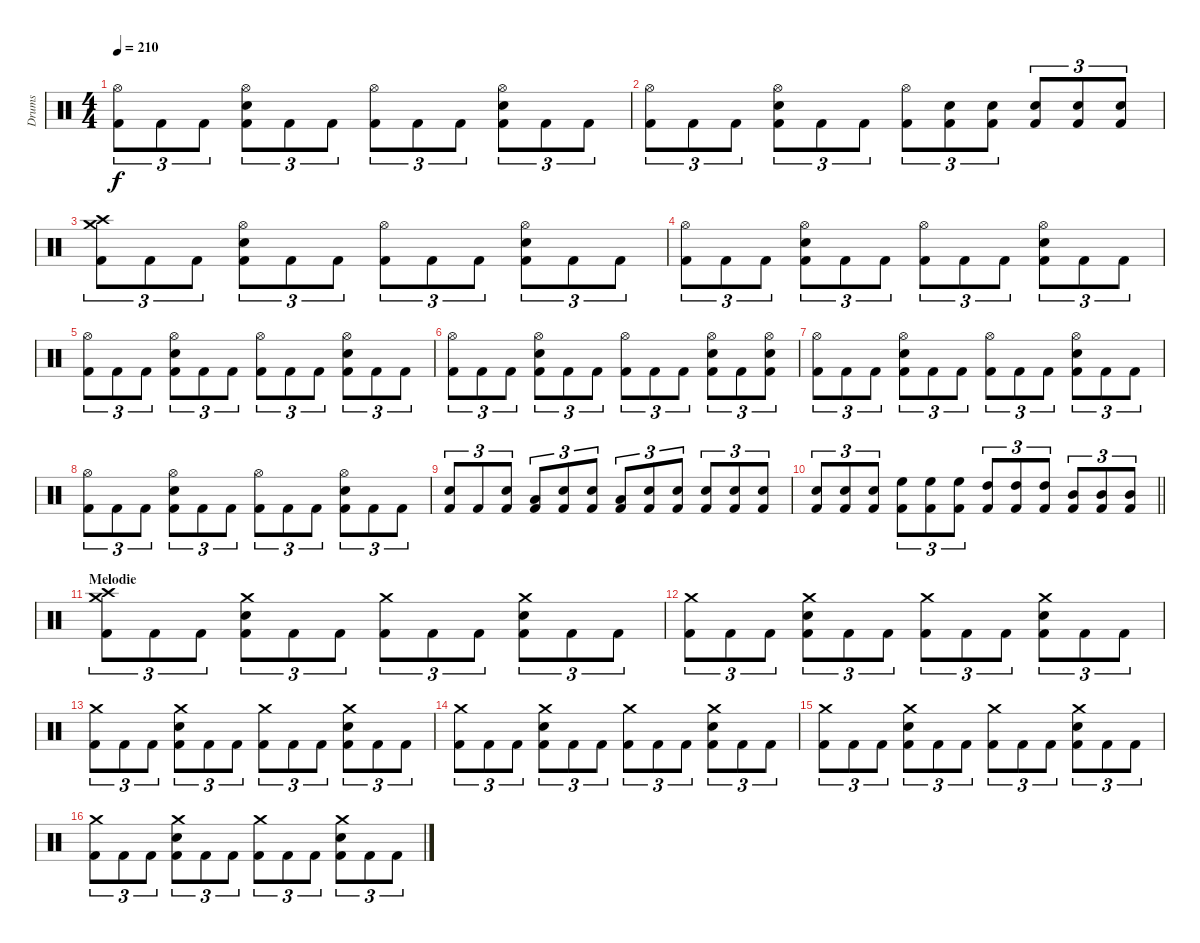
\track ("Drums" "Drums") {instrument percussion}
\staff {score}
\articulation defaults
\ts (4 4)
\tempo 210
\clef neutral
\ks c
("Hi-Hat (open)" "Kick (hit) 2").8{tu (3 2) dy f} "Kick (hit) 2".8{tu (3 2)} "Kick (hit) 2".8{tu (3 2)} ("Hi-Hat (open)" "Electric Snare (hit)" "Kick (hit) 2").8{tu (3 2)} "Kick (hit) 2".8{tu (3 2)} "Kick (hit) 2".8{tu (3 2)} ("Hi-Hat (open)" "Kick (hit) 2").8{tu (3 2)} "Kick (hit) 2".8{tu (3 2)} "Kick (hit) 2".8{tu (3 2)} ("Hi-Hat (open)" "Electric Snare (hit)" "Kick (hit) 2").8{tu (3 2)} "Kick (hit) 2".8{tu (3 2)} "Kick (hit) 2".8{tu (3 2)} |
("Hi-Hat (open)" "Kick (hit) 2").8{tu (3 2)} "Kick (hit) 2".8{tu (3 2)} "Kick (hit) 2".8{tu (3 2)} ("Hi-Hat (open)" "Electric Snare (hit)" "Kick (hit) 2").8{tu (3 2)} "Kick (hit) 2".8{tu (3 2)} "Kick (hit) 2".8{tu (3 2)} ("Hi-Hat (open)" "Kick (hit) 2").8{tu (3 2)} ("Electric Snare (hit)" "Kick (hit) 2").8{tu (3 2)} ("Electric Snare (hit)" "Kick (hit) 2").8{tu (3 2)} ("Electric Snare (hit)" "Kick (hit) 2").8{tu (3 2)} ("Electric Snare (hit)" "Kick (hit) 2").8{tu (3 2)} ("Electric Snare (hit)" "Kick (hit) 2").8{tu (3 2)} |
("Crash medium (hit)" "Crash high (hit)" "Kick (hit) 2").8{tu (3 2)} "Kick (hit) 2".8{tu (3 2)} "Kick (hit) 2".8{tu (3 2)} ("Hi-Hat (open)" "Electric Snare (hit)" "Kick (hit) 2").8{tu (3 2)} "Kick (hit) 2".8{tu (3 2)} "Kick (hit) 2".8{tu (3 2)} ("Hi-Hat (open)" "Kick (hit) 2").8{tu (3 2)} "Kick (hit) 2".8{tu (3 2)} "Kick (hit) 2".8{tu (3 2)} ("Hi-Hat (open)" "Electric Snare (hit)" "Kick (hit) 2").8{tu (3 2)} "Kick (hit) 2".8{tu (3 2)} "Kick (hit) 2".8{tu (3 2)} |
("Hi-Hat (open)" "Kick (hit) 2").8{tu (3 2)} "Kick (hit) 2".8{tu (3 2)} "Kick (hit) 2".8{tu (3 2)} ("Hi-Hat (open)" "Electric Snare (hit)" "Kick (hit) 2").8{tu (3 2)} "Kick (hit) 2".8{tu (3 2)} "Kick (hit) 2".8{tu (3 2)} ("Hi-Hat (open)" "Kick (hit) 2").8{tu (3 2)} "Kick (hit) 2".8{tu (3 2)} "Kick (hit) 2".8{tu (3 2)} ("Hi-Hat (open)" "Electric Snare (hit)" "Kick (hit) 2").8{tu (3 2)} "Kick (hit) 2".8{tu (3 2)} "Kick (hit) 2".8{tu (3 2)} |
("Hi-Hat (open)" "Kick (hit) 2").8{tu (3 2)} "Kick (hit) 2".8{tu (3 2)} "Kick (hit) 2".8{tu (3 2)} ("Hi-Hat (open)" "Electric Snare (hit)" "Kick (hit) 2").8{tu (3 2)} "Kick (hit) 2".8{tu (3 2)} "Kick (hit) 2".8{tu (3 2)} ("Hi-Hat (open)" "Kick (hit) 2").8{tu (3 2)} "Kick (hit) 2".8{tu (3 2)} "Kick (hit) 2".8{tu (3 2)} ("Hi-Hat (open)" "Electric Snare (hit)" "Kick (hit) 2").8{tu (3 2)} "Kick (hit) 2".8{tu (3 2)} "Kick (hit) 2".8{tu (3 2)} |
("Hi-Hat (open)" "Kick (hit) 2").8{tu (3 2)} "Kick (hit) 2".8{tu (3 2)} "Kick (hit) 2".8{tu (3 2)} ("Hi-Hat (open)" "Electric Snare (hit)" "Kick (hit) 2").8{tu (3 2)} "Kick (hit) 2".8{tu (3 2)} "Kick (hit) 2".8{tu (3 2)} ("Hi-Hat (open)" "Kick (hit) 2").8{tu (3 2)} "Kick (hit) 2".8{tu (3 2)} "Kick (hit) 2".8{tu (3 2)} ("Hi-Hat (open)" "Electric Snare (hit)" "Kick (hit) 2").8{tu (3 2)} "Kick (hit) 2".8{tu (3 2)} ("Hi-Hat (open)" "Electric Snare (hit)" "Kick (hit) 2").8{tu (3 2)} |
("Hi-Hat (open)" "Kick (hit) 2").8{tu (3 2)} "Kick (hit) 2".8{tu (3 2)} "Kick (hit) 2".8{tu (3 2)} ("Hi-Hat (open)" "Electric Snare (hit)" "Kick (hit) 2").8{tu (3 2)} "Kick (hit) 2".8{tu (3 2)} "Kick (hit) 2".8{tu (3 2)} ("Hi-Hat (open)" "Kick (hit) 2").8{tu (3 2)} "Kick (hit) 2".8{tu (3 2)} "Kick (hit) 2".8{tu (3 2)} ("Hi-Hat (open)" "Electric Snare (hit)" "Kick (hit) 2").8{tu (3 2)} "Kick (hit) 2".8{tu (3 2)} "Kick (hit) 2".8{tu (3 2)} |
("Hi-Hat (open)" "Kick (hit) 2").8{tu (3 2)} "Kick (hit) 2".8{tu (3 2)} "Kick (hit) 2".8{tu (3 2)} ("Hi-Hat (open)" "Electric Snare (hit)" "Kick (hit) 2").8{tu (3 2)} "Kick (hit) 2".8{tu (3 2)} "Kick (hit) 2".8{tu (3 2)} ("Hi-Hat (open)" "Kick (hit) 2").8{tu (3 2)} "Kick (hit) 2".8{tu (3 2)} "Kick (hit) 2".8{tu (3 2)} ("Hi-Hat (open)" "Electric Snare (hit)" "Kick (hit) 2").8{tu (3 2)} "Kick (hit) 2".8{tu (3 2)} "Kick (hit) 2".8{tu (3 2)} |
("Electric Snare (hit)" "Kick (hit) 2").8{tu (3 2)} "Kick (hit) 2".8{tu (3 2)} ("Electric Snare (hit)" "Kick (hit) 2").8{tu (3 2)} ("Low Tom (hit)" "Kick (hit) 2").8{tu (3 2)} ("Electric Snare (hit)" "Kick (hit) 2").8{tu (3 2)} ("Electric Snare (hit)" "Kick (hit) 2").8{tu (3 2)} ("Low Tom (hit)" "Kick (hit) 2").8{tu (3 2)} ("Electric Snare (hit)" "Kick (hit) 2").8{tu (3 2)} ("Electric Snare (hit)" "Kick (hit) 2").8{tu (3 2)} ("Electric Snare (hit)" "Kick (hit) 2").8{tu (3 2)} ("Electric Snare (hit)" "Kick (hit) 2").8{tu (3 2)} ("Electric Snare (hit)" "Kick (hit) 2").8{tu (3 2)} |
\barLineRight lightlight
("Electric Snare (hit)" "Kick (hit) 2").8{tu (3 2)} ("Electric Snare (hit)" "Kick (hit) 2").8{tu (3 2)} ("Electric Snare (hit)" "Kick (hit) 2").8{tu (3 2)} ("High Floor Tom (hit)" "Kick (hit) 2").8{tu (3 2)} ("High Floor Tom (hit)" "Kick (hit) 2").8{tu (3 2)} ("High Floor Tom (hit)" "Kick (hit) 2").8{tu (3 2)} ("High Tom (hit)" "Kick (hit) 2").8{tu (3 2)} ("High Tom (hit)" "Kick (hit) 2").8{tu (3 2)} ("High Tom (hit)" "Kick (hit) 2").8{tu (3 2)} ("Mid Tom (hit)" "Kick (hit) 2").8{tu (3 2)} ("Mid Tom (hit)" "Kick (hit) 2").8{tu (3 2)} ("Mid Tom (hit)" "Kick (hit) 2").8{tu (3 2)} |
\section ("" "Melodie")
("Crash medium (hit)" "Crash high (hit)" "Kick (hit) 2").8{tu (3 2)} "Kick (hit) 2".8{tu (3 2)} "Kick (hit) 2".8{tu (3 2)} ("Crash medium (hit)" "Electric Snare (hit)" "Kick (hit) 2").8{tu (3 2)} "Kick (hit) 2".8{tu (3 2)} "Kick (hit) 2".8{tu (3 2)} ("Crash medium (hit)" "Kick (hit) 2").8{tu (3 2)} "Kick (hit) 2".8{tu (3 2)} "Kick (hit) 2".8{tu (3 2)} ("Crash medium (hit)" "Electric Snare (hit)" "Kick (hit) 2").8{tu (3 2)} "Kick (hit) 2".8{tu (3 2)} "Kick (hit) 2".8{tu (3 2)} |
("Crash medium (hit)" "Kick (hit) 2").8{tu (3 2)} "Kick (hit) 2".8{tu (3 2)} "Kick (hit) 2".8{tu (3 2)} ("Crash medium (hit)" "Electric Snare (hit)" "Kick (hit) 2").8{tu (3 2)} "Kick (hit) 2".8{tu (3 2)} "Kick (hit) 2".8{tu (3 2)} ("Crash medium (hit)" "Kick (hit) 2").8{tu (3 2)} "Kick (hit) 2".8{tu (3 2)} "Kick (hit) 2".8{tu (3 2)} ("Crash medium (hit)" "Electric Snare (hit)" "Kick (hit) 2").8{tu (3 2)} "Kick (hit) 2".8{tu (3 2)} "Kick (hit) 2".8{tu (3 2)} |
("Crash medium (hit)" "Kick (hit) 2").8{tu (3 2)} "Kick (hit) 2".8{tu (3 2)} "Kick (hit) 2".8{tu (3 2)} ("Crash medium (hit)" "Electric Snare (hit)" "Kick (hit) 2").8{tu (3 2)} "Kick (hit) 2".8{tu (3 2)} "Kick (hit) 2".8{tu (3 2)} ("Crash medium (hit)" "Kick (hit) 2").8{tu (3 2)} "Kick (hit) 2".8{tu (3 2)} "Kick (hit) 2".8{tu (3 2)} ("Crash medium (hit)" "Electric Snare (hit)" "Kick (hit) 2").8{tu (3 2)} "Kick (hit) 2".8{tu (3 2)} "Kick (hit) 2".8{tu (3 2)} |
("Crash medium (hit)" "Kick (hit) 2").8{tu (3 2)} "Kick (hit) 2".8{tu (3 2)} "Kick (hit) 2".8{tu (3 2)} ("Crash medium (hit)" "Electric Snare (hit)" "Kick (hit) 2").8{tu (3 2)} "Kick (hit) 2".8{tu (3 2)} "Kick (hit) 2".8{tu (3 2)} ("Crash medium (hit)" "Kick (hit) 2").8{tu (3 2)} "Kick (hit) 2".8{tu (3 2)} "Kick (hit) 2".8{tu (3 2)} ("Crash medium (hit)" "Electric Snare (hit)" "Kick (hit) 2").8{tu (3 2)} "Kick (hit) 2".8{tu (3 2)} "Kick (hit) 2".8{tu (3 2)} |
("Crash medium (hit)" "Kick (hit) 2").8{tu (3 2)} "Kick (hit) 2".8{tu (3 2)} "Kick (hit) 2".8{tu (3 2)} ("Crash medium (hit)" "Electric Snare (hit)" "Kick (hit) 2").8{tu (3 2)} "Kick (hit) 2".8{tu (3 2)} "Kick (hit) 2".8{tu (3 2)} ("Crash medium (hit)" "Kick (hit) 2").8{tu (3 2)} "Kick (hit) 2".8{tu (3 2)} "Kick (hit) 2".8{tu (3 2)} ("Crash medium (hit)" "Electric Snare (hit)" "Kick (hit) 2").8{tu (3 2)} "Kick (hit) 2".8{tu (3 2)} "Kick (hit) 2".8{tu (3 2)} |
("Crash medium (hit)" "Kick (hit) 2").8{tu (3 2)} "Kick (hit) 2".8{tu (3 2)} "Kick (hit) 2".8{tu (3 2)} ("Crash medium (hit)" "Electric Snare (hit)" "Kick (hit) 2").8{tu (3 2)} "Kick (hit) 2".8{tu (3 2)} "Kick (hit) 2".8{tu (3 2)} ("Crash medium (hit)" "Kick (hit) 2").8{tu (3 2)} "Kick (hit) 2".8{tu (3 2)} "Kick (hit) 2".8{tu (3 2)} ("Crash medium (hit)" "Electric Snare (hit)" "Kick (hit) 2").8{tu (3 2)} "Kick (hit) 2".8{tu (3 2)} "Kick (hit) 2".8{tu (3 2)}
